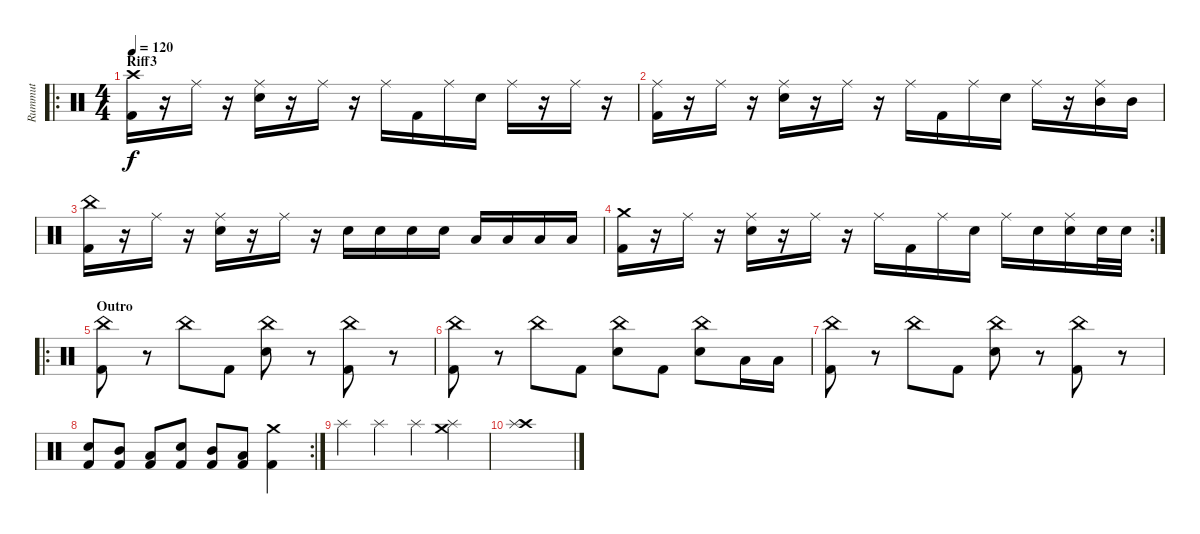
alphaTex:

\track ("Rummut" "Rummut") {instrument percussion}
\staff {score}
\articulation defaults
\ro
\ts (4 4)
\section ("" "Riff3")
\tempo 120
\clef neutral
\ks c
("Crash high (hit)" "Kick (hit) 2").16{dy f} r.16 "Ride (middle)".16 r.16 ("Ride (middle)" "Snare (hit) 2").16 r.16 "Ride (middle)".16 r.16 "Ride (middle)".16 "Kick (hit) 2".16 "Ride (middle)".16 "Snare (hit) 2".16 "Ride (middle)".16 r.16 "Ride (middle)".16 r.16 |
("Ride (middle)" "Kick (hit) 2").16 r.16 "Ride (middle)".16 r.16 ("Ride (middle)" "Snare (hit) 2").16 r.16 "Ride (middle)".16 r.16 "Ride (middle)".16 "Kick (hit) 2".16 "Ride (middle)".16 "Snare (hit) 2".16 "Ride (middle)".16 r.16 ("Ride (middle)" "Mid Tom (hit)").16 "Mid Tom (hit)".16 |
("China (hit)" "Kick (hit) 2").16 r.16 "Ride (middle)".16 r.16 ("Ride (middle)" "Snare (hit) 2").16 r.16 "Ride (middle)".16 r.16 "Snare (hit) 2".16 "Snare (hit) 2".16 "Snare (hit) 2".16 "Snare (hit) 2".16 "Low Tom (hit)".16 "Low Tom (hit)".16 "Low Tom (hit)".16 "Low Tom (hit)".16 |
\rc 2
("Crash medium (hit)" "Kick (hit) 2").16 r.16 "Ride (middle)".16 r.16 ("Ride (middle)" "Snare (hit) 2").16 r.16 "Ride (middle)".16 r.16 "Ride (middle)".16 "Kick (hit) 2".16 "Ride (middle)".16 "Snare (hit) 2".16 "Ride (middle)".16 "Snare (hit) 2".16 ("Ride (middle)" "Snare (hit) 2").16 "Snare (hit) 2".32 "Snare (hit) 2".32 |
\ro
\section ("" "Outro")
("China (hit)" "Kick (hit) 2").8 r.8 "China (hit)".8 "Kick (hit) 2".8 ("China (hit)" "Snare (hit) 2").8 r.8 ("China (hit)" "Kick (hit) 2").8 r.8 |
("China (hit)" "Kick (hit) 2").8 r.8 "China (hit)".8 "Kick (hit) 2".8 ("China (hit)" "Snare (hit) 2").8 "Kick (hit) 2".8 ("China (hit)" "Snare (hit) 2").8 "Low Tom (hit)".16 "Low Tom (hit)".16 |
("China (hit)" "Kick (hit) 2").8 r.8 "China (hit)".8 "Kick (hit) 2".8 ("China (hit)" "Snare (hit) 2").8 r.8 ("China (hit)" "Kick (hit) 2").8 r.8 |
\rc 2
("Snare (hit) 2" "Kick (hit) 2").8 ("Mid Tom (hit)" "Kick (hit) 2").8 ("Low Tom (hit)" "Kick (hit) 2").8 ("Snare (hit) 2" "Kick (hit) 2").8 ("Mid Tom (hit)" "Kick (hit) 2").8 ("Low Tom (hit)" "Kick (hit) 2").8 ("Crash medium (hit)" "Kick (hit) 2").4 |
"Splash (hit)".4 "Splash (hit)".4 "Splash (hit)".4 ("Crash medium (hit)" "Splash (hit)").4 |
("Crash high (hit)" "Splash (hit)").1
